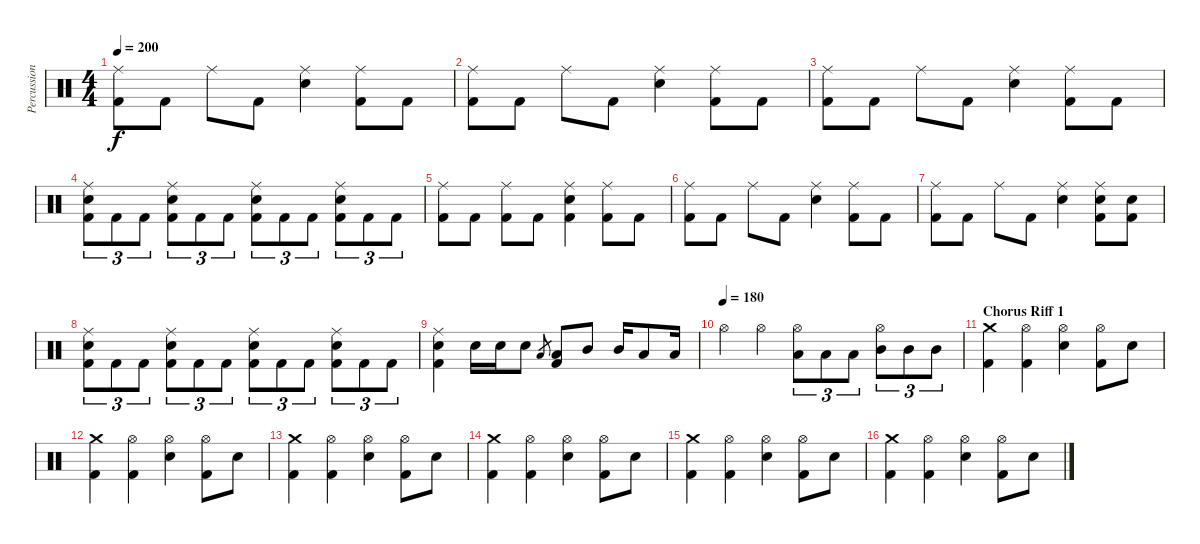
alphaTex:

\track ("Percussion" "Percussion") {instrument percussion}
\staff {score}
\articulation defaults
\ts (4 4)
\tempo 200
\clef neutral
\ks c
("Ride (middle)" "Kick (hit) 2").8{dy f} "Kick (hit) 2".8 "Ride (middle)".8 "Kick (hit) 2".8 ("Ride (middle)" "Electric Snare (hit)").4 ("Ride (middle)" "Kick (hit) 2").8 "Kick (hit) 2".8 |
("Ride (middle)" "Kick (hit) 2").8 "Kick (hit) 2".8 "Ride (middle)".8 "Kick (hit) 2".8 ("Ride (middle)" "Electric Snare (hit)").4 ("Ride (middle)" "Kick (hit) 2").8 "Kick (hit) 2".8 |
("Ride (middle)" "Kick (hit) 2").8 "Kick (hit) 2".8 "Ride (middle)".8 "Kick (hit) 2".8 ("Ride (middle)" "Electric Snare (hit)").4 ("Ride (middle)" "Kick (hit) 2").8 "Kick (hit) 2".8 |
("Ride (middle)" "Electric Snare (hit)" "Kick (hit) 2").8{tu (3 2)} "Kick (hit) 2".8{tu (3 2)} "Kick (hit) 2".8{tu (3 2)} ("Ride (middle)" "Electric Snare (hit)" "Kick (hit) 2").8{tu (3 2)} "Kick (hit) 2".8{tu (3 2)} "Kick (hit) 2".8{tu (3 2)} ("Ride (middle)" "Electric Snare (hit)" "Kick (hit) 2").8{tu (3 2)} "Kick (hit) 2".8{tu (3 2)} "Kick (hit) 2".8{tu (3 2)} ("Ride (middle)" "Electric Snare (hit)" "Kick (hit) 2").8{tu (3 2)} "Kick (hit) 2".8{tu (3 2)} "Kick (hit) 2".8{tu (3 2)} |
("Ride (middle)" "Kick (hit) 2").8 "Kick (hit) 2".8 ("Ride (middle)" "Kick (hit) 2").8 "Kick (hit) 2".8 ("Ride (middle)" "Electric Snare (hit)" "Kick (hit) 2").4 ("Ride (middle)" "Kick (hit) 2").8 "Kick (hit) 2".8 |
("Ride (middle)" "Kick (hit) 2").8 "Kick (hit) 2".8 "Ride (middle)".8 "Kick (hit) 2".8 ("Ride (middle)" "Electric Snare (hit)").4 ("Ride (middle)" "Kick (hit) 2").8 "Kick (hit) 2".8 |
("Ride (middle)" "Kick (hit) 2").8 "Kick (hit) 2".8 "Ride (middle)".8 "Kick (hit) 2".8 ("Ride (middle)" "Electric Snare (hit)").4 ("Ride (middle)" "Electric Snare (hit)" "Kick (hit) 2").8 ("Electric Snare (hit)" "Kick (hit) 2").8 |
("Ride (middle)" "Electric Snare (hit)" "Kick (hit) 2").8{tu (3 2)} "Kick (hit) 2".8{tu (3 2)} "Kick (hit) 2".8{tu (3 2)} ("Ride (middle)" "Electric Snare (hit)" "Kick (hit) 2").8{tu (3 2)} "Kick (hit) 2".8{tu (3 2)} "Kick (hit) 2".8{tu (3 2)} ("Ride (middle)" "Electric Snare (hit)" "Kick (hit) 2").8{tu (3 2)} "Kick (hit) 2".8{tu (3 2)} "Kick (hit) 2".8{tu (3 2)} ("Ride (middle)" "Electric Snare (hit)" "Kick (hit) 2").8{tu (3 2)} "Kick (hit) 2".8{tu (3 2)} "Kick (hit) 2".8{tu (3 2)} |
("Ride (middle)" "Electric Snare (hit)" "Kick (hit) 2").4 "Electric Snare (hit)".16 "Electric Snare (hit)".16 "Electric Snare (hit)".8 "Low Tom (hit)".8{gr} ("Low Tom (hit)" "Kick (hit) 2").8 "Mid Tom (hit)".8 "Mid Tom (hit)".16 "Low Floor Tom (hit)".8 "Low Floor Tom (hit)".16 |
\tempo (180)
"Hi-Hat (open)".4 "Hi-Hat (open)".4 ("Hi-Hat (open)" "Low Tom (hit)").8{tu (3 2)} "Low Tom (hit)".8{tu (3 2)} "Low Tom (hit)".8{tu (3 2)} ("Hi-Hat (open)" "Mid Tom (hit)").8{tu (3 2)} "Mid Tom (hit)".8{tu (3 2)} "Mid Tom (hit)".8{tu (3 2)} |
\section ("" "Chorus Riff 1")
("Crash medium (hit)" "Kick (hit) 2").4 ("Hi-Hat (open)" "Kick (hit) 2").4 ("Hi-Hat (open)" "Electric Snare (hit)").4 ("Hi-Hat (open)" "Kick (hit) 2").8 "Electric Snare (hit)".8 |
("Crash medium (hit)" "Kick (hit) 2").4 ("Hi-Hat (open)" "Kick (hit) 2").4 ("Hi-Hat (open)" "Electric Snare (hit)").4 ("Hi-Hat (open)" "Kick (hit) 2").8 "Electric Snare (hit)".8 |
("Crash medium (hit)" "Kick (hit) 2").4 ("Hi-Hat (open)" "Kick (hit) 2").4 ("Hi-Hat (open)" "Electric Snare (hit)").4 ("Hi-Hat (open)" "Kick (hit) 2").8 "Electric Snare (hit)".8 |
("Crash medium (hit)" "Kick (hit) 2").4 ("Hi-Hat (open)" "Kick (hit) 2").4 ("Hi-Hat (open)" "Electric Snare (hit)").4 ("Hi-Hat (open)" "Kick (hit) 2").8 "Electric Snare (hit)".8 |
("Crash medium (hit)" "Kick (hit) 2").4 ("Hi-Hat (open)" "Kick (hit) 2").4 ("Hi-Hat (open)" "Electric Snare (hit)").4 ("Hi-Hat (open)" "Kick (hit) 2").8 "Electric Snare (hit)".8 |
("Crash medium (hit)" "Kick (hit) 2").4 ("Hi-Hat (open)" "Kick (hit) 2").4 ("Hi-Hat (open)" "Electric Snare (hit)").4 ("Hi-Hat (open)" "Kick (hit) 2").8 "Electric Snare (hit)".8
